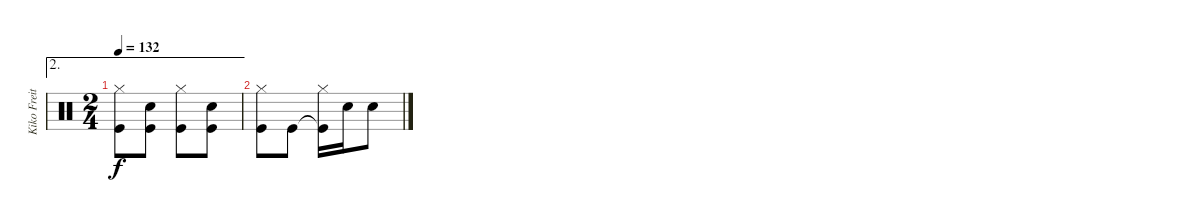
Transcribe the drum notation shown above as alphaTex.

\track ("Kiko Freitas" "Kiko Freit") {instrument percussion}
\staff {score}
\articulation defaults
\ae 2
\ts (2 4)
\tempo 132
\clef neutral
\ks c
("Kick (hit)" "Hi-Hat (closed)").8{dy f} ("Kick (hit)" "Electric Snare (hit)").8 ("Kick (hit)" "Hi-Hat (closed)").8 ("Kick (hit)" "Electric Snare (hit)").8 |
("Kick (hit)" "Hi-Hat (closed)").8 "Kick (hit)".8 ("Kick (hit)"{t} "Hi-Hat (closed)").16 "Electric Snare (hit)".16 "Electric Snare (hit)".8
